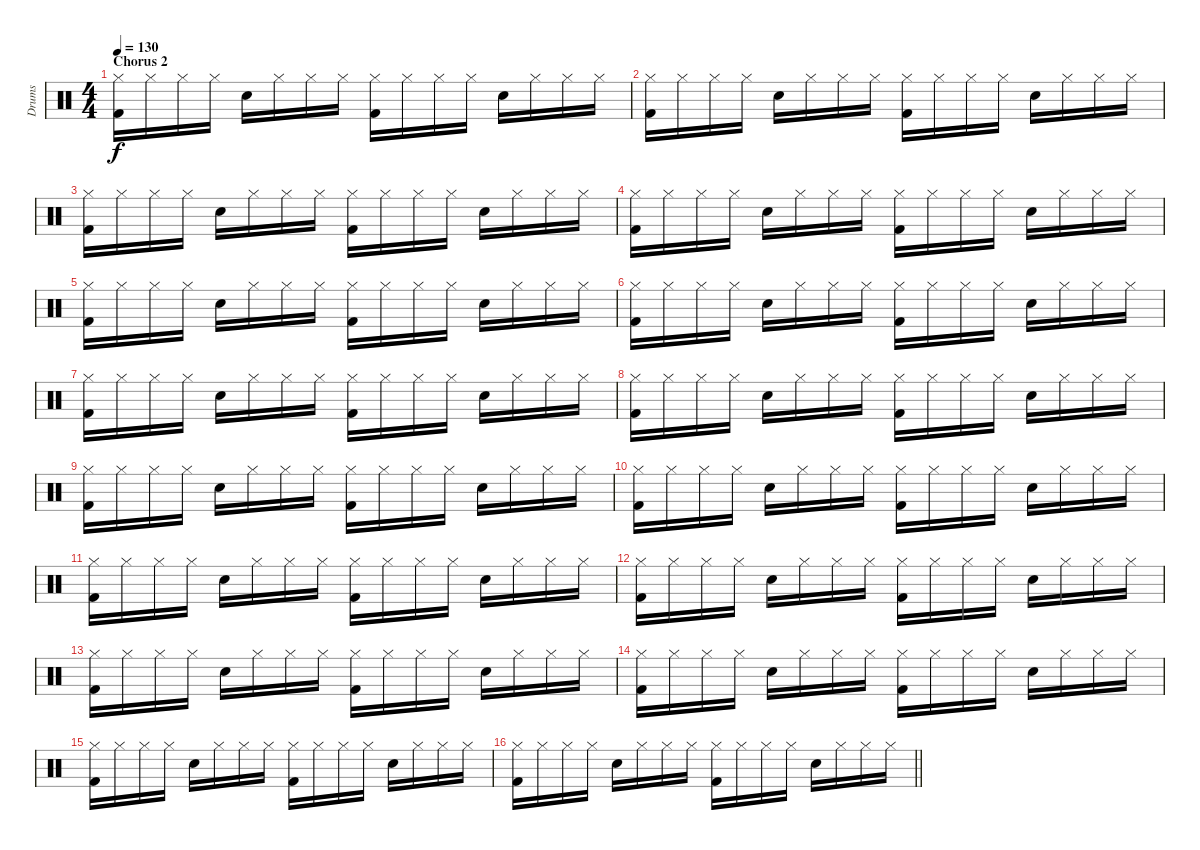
\track ("Drums" "Drums") {instrument percussion}
\staff {score}
\articulation defaults
\ts (4 4)
\section ("" "Chorus 2")
\tempo 130
\clef neutral
\ks c
("Hi-Hat (closed)" "Kick (hit) 2").16{dy f} "Hi-Hat (closed)".16 "Hi-Hat (closed)".16 "Hi-Hat (closed)".16 "Snare (hit) 2".16 "Hi-Hat (closed)".16 "Hi-Hat (closed)".16 "Hi-Hat (closed)".16 ("Hi-Hat (closed)" "Kick (hit) 2").16 "Hi-Hat (closed)".16 "Hi-Hat (closed)".16 "Hi-Hat (closed)".16 "Snare (hit) 2".16 "Hi-Hat (closed)".16 "Hi-Hat (closed)".16 "Hi-Hat (closed)".16 |
("Hi-Hat (closed)" "Kick (hit) 2").16 "Hi-Hat (closed)".16 "Hi-Hat (closed)".16 "Hi-Hat (closed)".16 "Snare (hit) 2".16 "Hi-Hat (closed)".16 "Hi-Hat (closed)".16 "Hi-Hat (closed)".16 ("Hi-Hat (closed)" "Kick (hit) 2").16 "Hi-Hat (closed)".16 "Hi-Hat (closed)".16 "Hi-Hat (closed)".16 "Snare (hit) 2".16 "Hi-Hat (closed)".16 "Hi-Hat (closed)".16 "Hi-Hat (closed)".16 |
("Hi-Hat (closed)" "Kick (hit) 2").16 "Hi-Hat (closed)".16 "Hi-Hat (closed)".16 "Hi-Hat (closed)".16 "Snare (hit) 2".16 "Hi-Hat (closed)".16 "Hi-Hat (closed)".16 "Hi-Hat (closed)".16 ("Hi-Hat (closed)" "Kick (hit) 2").16 "Hi-Hat (closed)".16 "Hi-Hat (closed)".16 "Hi-Hat (closed)".16 "Snare (hit) 2".16 "Hi-Hat (closed)".16 "Hi-Hat (closed)".16 "Hi-Hat (closed)".16 |
("Hi-Hat (closed)" "Kick (hit) 2").16 "Hi-Hat (closed)".16 "Hi-Hat (closed)".16 "Hi-Hat (closed)".16 "Snare (hit) 2".16 "Hi-Hat (closed)".16 "Hi-Hat (closed)".16 "Hi-Hat (closed)".16 ("Hi-Hat (closed)" "Kick (hit) 2").16 "Hi-Hat (closed)".16 "Hi-Hat (closed)".16 "Hi-Hat (closed)".16 "Snare (hit) 2".16 "Hi-Hat (closed)".16 "Hi-Hat (closed)".16 "Hi-Hat (closed)".16 |
("Hi-Hat (closed)" "Kick (hit) 2").16 "Hi-Hat (closed)".16 "Hi-Hat (closed)".16 "Hi-Hat (closed)".16 "Snare (hit) 2".16 "Hi-Hat (closed)".16 "Hi-Hat (closed)".16 "Hi-Hat (closed)".16 ("Hi-Hat (closed)" "Kick (hit) 2").16 "Hi-Hat (closed)".16 "Hi-Hat (closed)".16 "Hi-Hat (closed)".16 "Snare (hit) 2".16 "Hi-Hat (closed)".16 "Hi-Hat (closed)".16 "Hi-Hat (closed)".16 |
("Hi-Hat (closed)" "Kick (hit) 2").16 "Hi-Hat (closed)".16 "Hi-Hat (closed)".16 "Hi-Hat (closed)".16 "Snare (hit) 2".16 "Hi-Hat (closed)".16 "Hi-Hat (closed)".16 "Hi-Hat (closed)".16 ("Hi-Hat (closed)" "Kick (hit) 2").16 "Hi-Hat (closed)".16 "Hi-Hat (closed)".16 "Hi-Hat (closed)".16 "Snare (hit) 2".16 "Hi-Hat (closed)".16 "Hi-Hat (closed)".16 "Hi-Hat (closed)".16 |
("Hi-Hat (closed)" "Kick (hit) 2").16 "Hi-Hat (closed)".16 "Hi-Hat (closed)".16 "Hi-Hat (closed)".16 "Snare (hit) 2".16 "Hi-Hat (closed)".16 "Hi-Hat (closed)".16 "Hi-Hat (closed)".16 ("Hi-Hat (closed)" "Kick (hit) 2").16 "Hi-Hat (closed)".16 "Hi-Hat (closed)".16 "Hi-Hat (closed)".16 "Snare (hit) 2".16 "Hi-Hat (closed)".16 "Hi-Hat (closed)".16 "Hi-Hat (closed)".16 |
("Hi-Hat (closed)" "Kick (hit) 2").16 "Hi-Hat (closed)".16 "Hi-Hat (closed)".16 "Hi-Hat (closed)".16 "Snare (hit) 2".16 "Hi-Hat (closed)".16 "Hi-Hat (closed)".16 "Hi-Hat (closed)".16 ("Hi-Hat (closed)" "Kick (hit) 2").16 "Hi-Hat (closed)".16 "Hi-Hat (closed)".16 "Hi-Hat (closed)".16 "Snare (hit) 2".16 "Hi-Hat (closed)".16 "Hi-Hat (closed)".16 "Hi-Hat (closed)".16 |
("Hi-Hat (closed)" "Kick (hit) 2").16 "Hi-Hat (closed)".16 "Hi-Hat (closed)".16 "Hi-Hat (closed)".16 "Snare (hit) 2".16 "Hi-Hat (closed)".16 "Hi-Hat (closed)".16 "Hi-Hat (closed)".16 ("Hi-Hat (closed)" "Kick (hit) 2").16 "Hi-Hat (closed)".16 "Hi-Hat (closed)".16 "Hi-Hat (closed)".16 "Snare (hit) 2".16 "Hi-Hat (closed)".16 "Hi-Hat (closed)".16 "Hi-Hat (closed)".16 |
("Hi-Hat (closed)" "Kick (hit) 2").16 "Hi-Hat (closed)".16 "Hi-Hat (closed)".16 "Hi-Hat (closed)".16 "Snare (hit) 2".16 "Hi-Hat (closed)".16 "Hi-Hat (closed)".16 "Hi-Hat (closed)".16 ("Hi-Hat (closed)" "Kick (hit) 2").16 "Hi-Hat (closed)".16 "Hi-Hat (closed)".16 "Hi-Hat (closed)".16 "Snare (hit) 2".16 "Hi-Hat (closed)".16 "Hi-Hat (closed)".16 "Hi-Hat (closed)".16 |
("Hi-Hat (closed)" "Kick (hit) 2").16 "Hi-Hat (closed)".16 "Hi-Hat (closed)".16 "Hi-Hat (closed)".16 "Snare (hit) 2".16 "Hi-Hat (closed)".16 "Hi-Hat (closed)".16 "Hi-Hat (closed)".16 ("Hi-Hat (closed)" "Kick (hit) 2").16 "Hi-Hat (closed)".16 "Hi-Hat (closed)".16 "Hi-Hat (closed)".16 "Snare (hit) 2".16 "Hi-Hat (closed)".16 "Hi-Hat (closed)".16 "Hi-Hat (closed)".16 |
("Hi-Hat (closed)" "Kick (hit) 2").16 "Hi-Hat (closed)".16 "Hi-Hat (closed)".16 "Hi-Hat (closed)".16 "Snare (hit) 2".16 "Hi-Hat (closed)".16 "Hi-Hat (closed)".16 "Hi-Hat (closed)".16 ("Hi-Hat (closed)" "Kick (hit) 2").16 "Hi-Hat (closed)".16 "Hi-Hat (closed)".16 "Hi-Hat (closed)".16 "Snare (hit) 2".16 "Hi-Hat (closed)".16 "Hi-Hat (closed)".16 "Hi-Hat (closed)".16 |
("Hi-Hat (closed)" "Kick (hit) 2").16 "Hi-Hat (closed)".16 "Hi-Hat (closed)".16 "Hi-Hat (closed)".16 "Snare (hit) 2".16 "Hi-Hat (closed)".16 "Hi-Hat (closed)".16 "Hi-Hat (closed)".16 ("Hi-Hat (closed)" "Kick (hit) 2").16 "Hi-Hat (closed)".16 "Hi-Hat (closed)".16 "Hi-Hat (closed)".16 "Snare (hit) 2".16 "Hi-Hat (closed)".16 "Hi-Hat (closed)".16 "Hi-Hat (closed)".16 |
("Hi-Hat (closed)" "Kick (hit) 2").16 "Hi-Hat (closed)".16 "Hi-Hat (closed)".16 "Hi-Hat (closed)".16 "Snare (hit) 2".16 "Hi-Hat (closed)".16 "Hi-Hat (closed)".16 "Hi-Hat (closed)".16 ("Hi-Hat (closed)" "Kick (hit) 2").16 "Hi-Hat (closed)".16 "Hi-Hat (closed)".16 "Hi-Hat (closed)".16 "Snare (hit) 2".16 "Hi-Hat (closed)".16 "Hi-Hat (closed)".16 "Hi-Hat (closed)".16 |
("Hi-Hat (closed)" "Kick (hit) 2").16 "Hi-Hat (closed)".16 "Hi-Hat (closed)".16 "Hi-Hat (closed)".16 "Snare (hit) 2".16 "Hi-Hat (closed)".16 "Hi-Hat (closed)".16 "Hi-Hat (closed)".16 ("Hi-Hat (closed)" "Kick (hit) 2").16 "Hi-Hat (closed)".16 "Hi-Hat (closed)".16 "Hi-Hat (closed)".16 "Snare (hit) 2".16 "Hi-Hat (closed)".16 "Hi-Hat (closed)".16 "Hi-Hat (closed)".16 |
\barLineRight lightlight
("Hi-Hat (closed)" "Kick (hit) 2").16 "Hi-Hat (closed)".16 "Hi-Hat (closed)".16 "Hi-Hat (closed)".16 "Snare (hit) 2".16 "Hi-Hat (closed)".16 "Hi-Hat (closed)".16 "Hi-Hat (closed)".16 ("Hi-Hat (closed)" "Kick (hit) 2").16 "Hi-Hat (closed)".16 "Hi-Hat (closed)".16 "Hi-Hat (closed)".16 "Snare (hit) 2".16 "Hi-Hat (closed)".16 "Hi-Hat (closed)".16 "Hi-Hat (closed)".16
